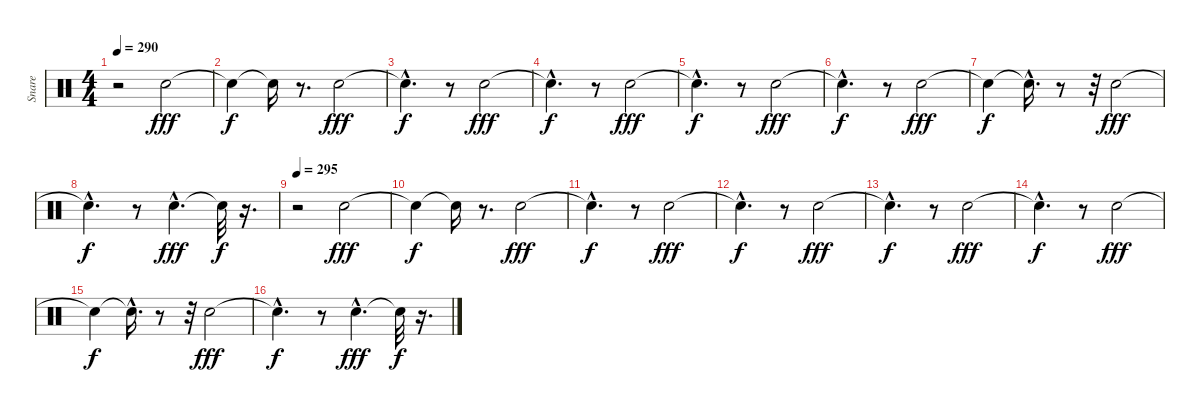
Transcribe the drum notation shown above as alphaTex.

\track ("Snare" "Snare") {instrument percussion}
\staff {score}
\articulation defaults
\ts (4 4)
\tempo 290
\clef neutral
\ks c
r.2{dy f} "Electric Snare (hit)".2{dy fff} |
"Snare (hit)"{t}.4{dy f} "Snare (hit)"{t}.16 r.8{d} "Electric Snare (hit)".2{dy fff} |
"Snare (hit)"{hac t}.4{d dy f} r.8 "Electric Snare (hit)".2{dy fff} |
"Snare (hit)"{hac t}.4{d dy f} r.8 "Electric Snare (hit)".2{dy fff} |
"Snare (hit)"{hac t}.4{d dy f} r.8 "Electric Snare (hit)".2{dy fff} |
"Snare (hit)"{hac t}.4{d dy f} r.8 "Electric Snare (hit)".2{dy fff} |
"Snare (hit)"{t}.4{dy f} "Snare (hit)"{hac t}.16{d} r.8 r.32 "Electric Snare (hit)".2{dy fff} |
"Snare (hit)"{hac t}.4{d dy f} r.8 "Electric Snare (hit)"{hac}.4{d dy fff} "Snare (hit)"{t}.32{dy f} r.16{d} |
\tempo 295
r.2 "Electric Snare (hit)".2{dy fff} |
"Snare (hit)"{t}.4{dy f} "Snare (hit)"{t}.16 r.8{d} "Electric Snare (hit)".2{dy fff} |
"Snare (hit)"{hac t}.4{d dy f} r.8 "Electric Snare (hit)".2{dy fff} |
"Snare (hit)"{hac t}.4{d dy f} r.8 "Electric Snare (hit)".2{dy fff} |
"Snare (hit)"{hac t}.4{d dy f} r.8 "Electric Snare (hit)".2{dy fff} |
"Snare (hit)"{hac t}.4{d dy f} r.8 "Electric Snare (hit)".2{dy fff} |
"Snare (hit)"{t}.4{dy f} "Snare (hit)"{hac t}.16{d} r.8 r.32 "Electric Snare (hit)".2{dy fff} |
"Snare (hit)"{hac t}.4{d dy f} r.8 "Electric Snare (hit)"{hac}.4{d dy fff} "Snare (hit)"{t}.32{dy f} r.16{d}
